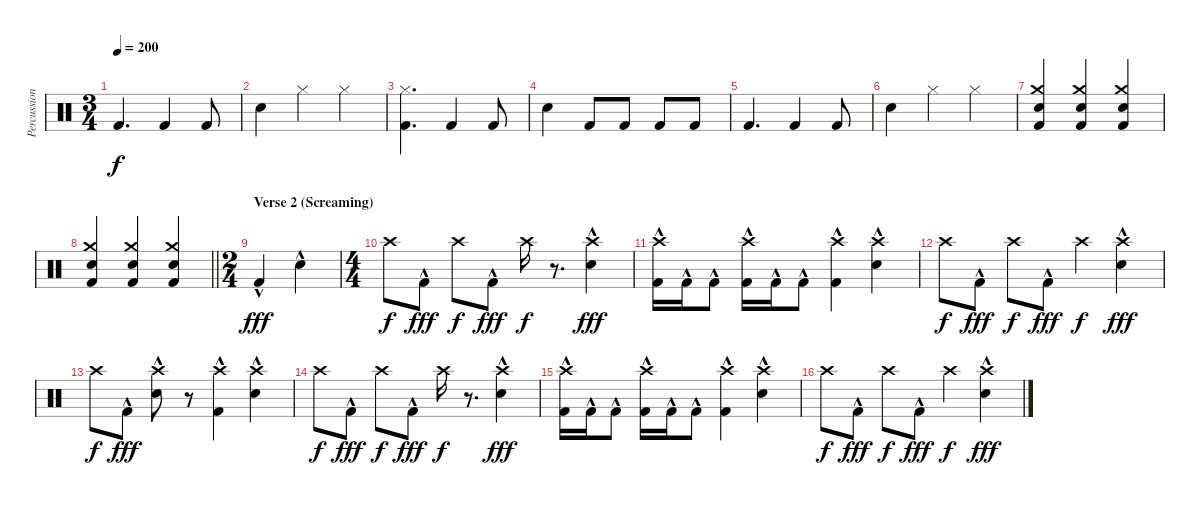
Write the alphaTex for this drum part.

\track ("Percussion" "Percussion") {instrument percussion}
\staff {score}
\articulation defaults
\ts (3 4)
\tempo 200
\clef neutral
\ks c "Kick (hit) 2".4{d dy f} "Kick (hit) 2".4 "Kick (hit) 2".8
|
"Snare (hit) 2".4 "Hi-Hat (closed)".4 "Hi-Hat (closed)".4 |
("Hi-Hat (closed)" "Kick (hit) 2").4{d} "Kick (hit) 2".4 "Kick (hit) 2".8 |
"Snare (hit) 2".4 "Kick (hit) 2".8 "Kick (hit) 2".8 "Kick (hit) 2".8 "Kick (hit) 2".8 |
"Kick (hit) 2".4{d} "Kick (hit) 2".4 "Kick (hit) 2".8 |
"Snare (hit) 2".4 "Hi-Hat (closed)".4 "Hi-Hat (closed)".4 |
("Crash medium (hit)" "Electric Snare (hit)" "Kick (hit) 2").4 ("Crash medium (hit)" "Electric Snare (hit)" "Kick (hit) 2").4 ("Crash medium (hit)" "Electric Snare (hit)" "Kick (hit) 2").4 |
\barLineRight lightlight
("Crash medium (hit)" "Electric Snare (hit)" "Kick (hit) 2").4 ("Crash medium (hit)" "Electric Snare (hit)" "Kick (hit) 2").4 ("Crash medium (hit)" "Electric Snare (hit)" "Kick (hit) 2").4 |
\ts (2 4)
\section ("" "Verse 2 (Screaming) ")
"Kick (hit) 2"{hac}.4{dy fff} "Snare (hit) 2"{hac}.4 |
\ts (4 4)
"Crash high (hit)".8{dy f} "Kick (hit) 2"{hac}.8{dy fff} "Crash high (hit)".8{dy f} "Kick (hit) 2"{hac}.8{dy fff} "Crash high (hit)".16{dy f} r.8{d} ("Crash high (hit)" "Electric Snare (hit)"{hac}).4{dy fff} |
("Crash high (hit)" "Kick (hit) 2"{hac}).16 "Kick (hit) 2"{hac}.16 "Kick (hit) 2"{hac}.8 ("Crash high (hit)" "Kick (hit) 2"{hac}).16 "Kick (hit) 2"{hac}.16 "Kick (hit) 2"{hac}.8 ("Crash high (hit)" "Kick (hit) 2"{hac}).4 ("Crash high (hit)" "Electric Snare (hit)"{hac}).4 |
"Crash high (hit)".8{dy f} "Kick (hit) 2"{hac}.8{dy fff} "Crash high (hit)".8{dy f} "Kick (hit) 2"{hac}.8{dy fff} "Crash high (hit)".4{dy f} ("Crash high (hit)" "Electric Snare (hit)"{hac}).4{dy fff} |
"Crash high (hit)".8{dy f} "Kick (hit) 2"{hac}.8{dy fff} ("Crash high (hit)" "Electric Snare (hit)"{hac}).8 r.8 ("Crash high (hit)" "Kick (hit) 2"{hac}).4 ("Crash high (hit)" "Electric Snare (hit)"{hac}).4 |
"Crash high (hit)".8{dy f} "Kick (hit) 2"{hac}.8{dy fff} "Crash high (hit)".8{dy f} "Kick (hit) 2"{hac}.8{dy fff} "Crash high (hit)".16{dy f} r.8{d} ("Crash high (hit)" "Electric Snare (hit)"{hac}).4{dy fff} |
("Crash high (hit)" "Kick (hit) 2"{hac}).16 "Kick (hit) 2"{hac}.16 "Kick (hit) 2"{hac}.8 ("Crash high (hit)" "Kick (hit) 2"{hac}).16 "Kick (hit) 2"{hac}.16 "Kick (hit) 2"{hac}.8 ("Crash high (hit)" "Kick (hit) 2"{hac}).4 ("Crash high (hit)" "Electric Snare (hit)"{hac}).4 |
"Crash high (hit)".8{dy f} "Kick (hit) 2"{hac}.8{dy fff} "Crash high (hit)".8{dy f} "Kick (hit) 2"{hac}.8{dy fff} "Crash high (hit)".4{dy f} ("Crash high (hit)" "Electric Snare (hit)"{hac}).4{dy fff}
